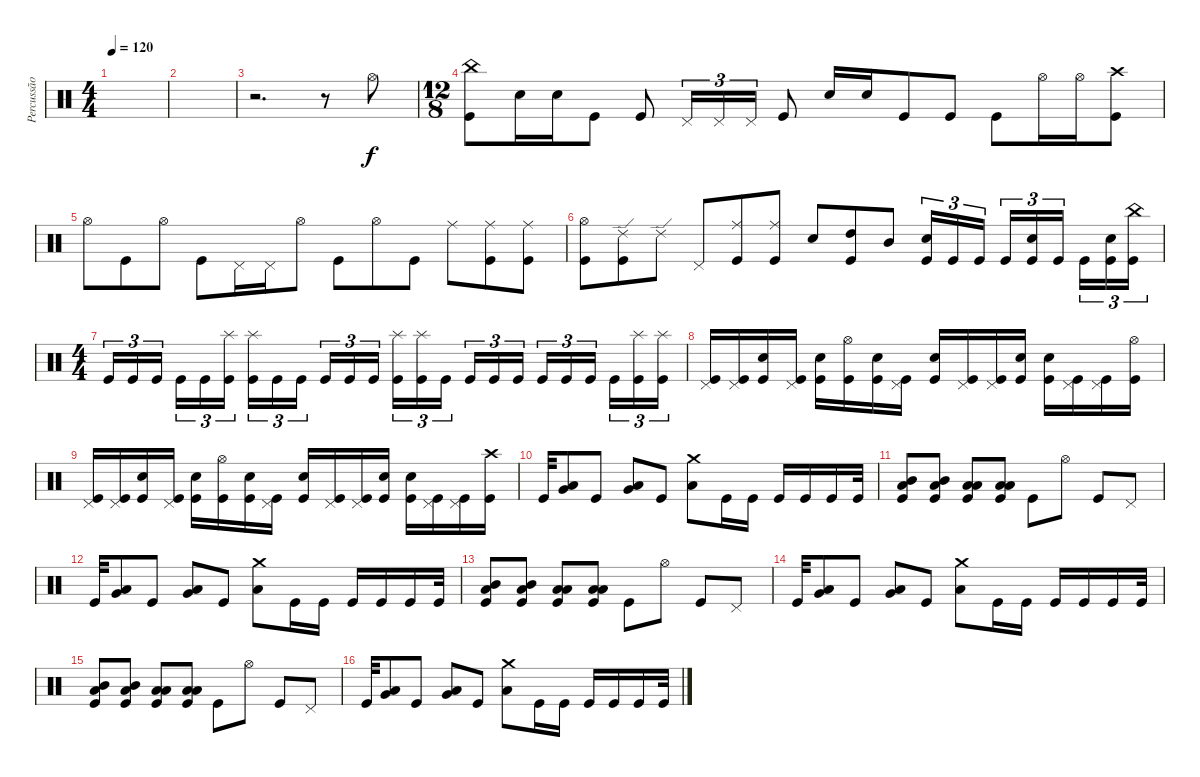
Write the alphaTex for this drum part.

\track ("Percussão" "Percussão") {instrument percussion}
\staff {score}
\articulation defaults
\ts (4 4)
\tempo 120
\clef neutral
\ks c
|
|
r.2{d} r.8 "Hi-Hat (open)".8 |
\ts (12 8)
("Kick (hit)" "China (hit)").8 "Snare (hit) 2".16 "Snare (hit) 2".16 "Kick (hit)".8 "Kick (hit)".8 "Pedal Hi-Hat (hit)".16{tu (3 2)} "Pedal Hi-Hat (hit)".16{tu (3 2)} "Pedal Hi-Hat (hit)".16{tu (3 2)} "Kick (hit)".8 "Snare (hit) 2".16 "Snare (hit) 2".16 "Kick (hit)".8 "Kick (hit)".8 "Kick (hit)".8 "Hi-Hat (open)".16 "Hi-Hat (open)".16 ("Kick (hit)" "Crash high (hit)").8 |
"Hi-Hat (open)".8 "Kick (hit)".8 "Hi-Hat (open)".8 "Kick (hit)".8 "Pedal Hi-Hat (hit)".16 "Pedal Hi-Hat (hit)".16 "Hi-Hat (open)".8 "Kick (hit)".8 "Hi-Hat (open)".8 "Kick (hit)".8 "Ride (middle)".8 ("Kick (hit)" "Ride (middle)").8 ("Kick (hit)" "Ride (middle)").8 |
("Kick (hit)" "Hi-Hat (open)").8 ("Kick (hit)" "Ride (edge) 2").8 "Ride (edge) 2".8 "Pedal Hi-Hat (hit)".8 ("Kick (hit)" "Ride (middle)").8 ("Kick (hit)" "Ride (middle)").8 "Snare (hit) 2".8 ("Kick (hit)" "High Tom (hit)").8 "Mid Tom (hit)".8 ("Kick (hit)" "Snare (hit) 2").16{tu (3 2)} "Kick (hit)".16{tu (3 2)} "Kick (hit)".16{tu (3 2)} "Kick (hit)".16{tu (3 2)} ("Kick (hit)" "Snare (hit) 2").16{tu (3 2)} "Kick (hit)".16{tu (3 2)} "Kick (hit)".16{tu (3 2)} ("Kick (hit)" "Snare (hit) 2").16{tu (3 2)} ("Kick (hit)" "China (hit)").16{tu (3 2)} |
\ts (4 4)
"Kick (hit)".16{tu (3 2)} "Kick (hit)".16{tu (3 2)} "Kick (hit)".16{tu (3 2)} "Kick (hit)".16{tu (3 2)} "Kick (hit)".16{tu (3 2)} ("Kick (hit)" "Splash (hit)").16{tu (3 2)} ("Kick (hit)" "Splash (hit)").16{tu (3 2)} "Kick (hit)".16{tu (3 2)} "Kick (hit)".16{tu (3 2)} "Kick (hit)".16{tu (3 2)} "Kick (hit)".16{tu (3 2)} "Kick (hit)".16{tu (3 2)} ("Kick (hit)" "Splash (hit)").16{tu (3 2)} ("Kick (hit)" "Splash (hit)").16{tu (3 2)} "Kick (hit)".16{tu (3 2)} "Kick (hit)".16{tu (3 2)} "Kick (hit)".16{tu (3 2)} "Kick (hit)".16{tu (3 2)} "Kick (hit)".16{tu (3 2)} "Kick (hit)".16{tu (3 2)} "Kick (hit)".16{tu (3 2)} "Kick (hit)".16{tu (3 2)} ("Kick (hit)" "Splash (hit)").16{tu (3 2)} ("Kick (hit)" "Splash (hit)").16{tu (3 2)} |
("Kick (hit)" "Pedal Hi-Hat (hit)").16 ("Kick (hit)" "Pedal Hi-Hat (hit)").16 ("Kick (hit)" "Snare (hit) 2").16 ("Kick (hit)" "Pedal Hi-Hat (hit)").16 ("Kick (hit)" "Snare (hit) 2").16 ("Kick (hit)" "Hi-Hat (open)").16 ("Kick (hit)" "Snare (hit) 2").16 ("Kick (hit)" "Pedal Hi-Hat (hit)").16 ("Kick (hit)" "Snare (hit) 2").16 ("Kick (hit)" "Pedal Hi-Hat (hit)").16 ("Kick (hit)" "Pedal Hi-Hat (hit)").16 ("Kick (hit)" "Snare (hit) 2").16 ("Kick (hit)" "Snare (hit) 2").16 ("Kick (hit)" "Pedal Hi-Hat (hit)").16 ("Kick (hit)" "Pedal Hi-Hat (hit)").16 ("Kick (hit)" "Hi-Hat (open)").16 |
("Kick (hit)" "Pedal Hi-Hat (hit)").16 ("Kick (hit)" "Pedal Hi-Hat (hit)").16 ("Kick (hit)" "Snare (hit) 2").16 ("Kick (hit)" "Pedal Hi-Hat (hit)").16 ("Kick (hit)" "Snare (hit) 2").16 ("Kick (hit)" "Hi-Hat (open)").16 ("Kick (hit)" "Snare (hit) 2").16 ("Kick (hit)" "Pedal Hi-Hat (hit)").16 ("Kick (hit)" "Snare (hit) 2").16 ("Kick (hit)" "Pedal Hi-Hat (hit)").16 ("Kick (hit)" "Pedal Hi-Hat (hit)").16 ("Kick (hit)" "Snare (hit) 2").16 ("Kick (hit)" "Snare (hit) 2").16 ("Kick (hit)" "Pedal Hi-Hat (hit)").16 ("Kick (hit)" "Pedal Hi-Hat (hit)").16 ("Kick (hit)" "Crash high (hit)").16 |
"Kick (hit)".32 ("Very Low Tom (hit)" "Low Floor Tom (hit)").8 "Kick (hit)".8 ("Very Low Tom (hit)" "Low Floor Tom (hit)").8 "Kick (hit)".8 ("Low Floor Tom (hit)" "Crash medium (hit)").8 "Kick (hit)".16 "Kick (hit)".16 "Kick (hit)".16 "Kick (hit)".16 "Kick (hit)".16 "Kick (hit)".32 |
("Low Floor Tom (hit)" "Mid Tom (hit)" "Kick (hit)").8 ("Low Floor Tom (hit)" "Mid Tom (hit)" "Kick (hit)").8 ("Low Floor Tom (hit)" "Low Tom (hit)" "Kick (hit)").8 ("Low Floor Tom (hit)" "Low Tom (hit)" "Kick (hit)").8 "Kick (hit)".8 "Hi-Hat (open)".8 "Kick (hit)".8 "Pedal Hi-Hat (hit)".8 |
"Kick (hit)".32 ("Very Low Tom (hit)" "Low Floor Tom (hit)").8 "Kick (hit)".8 ("Very Low Tom (hit)" "Low Floor Tom (hit)").8 "Kick (hit)".8 ("Low Floor Tom (hit)" "Crash medium (hit)").8 "Kick (hit)".16 "Kick (hit)".16 "Kick (hit)".16 "Kick (hit)".16 "Kick (hit)".16 "Kick (hit)".32 |
("Low Floor Tom (hit)" "Mid Tom (hit)" "Kick (hit)").8 ("Low Floor Tom (hit)" "Mid Tom (hit)" "Kick (hit)").8 ("Low Floor Tom (hit)" "Low Tom (hit)" "Kick (hit)").8 ("Low Floor Tom (hit)" "Low Tom (hit)" "Kick (hit)").8 "Kick (hit)".8 "Hi-Hat (open)".8 "Kick (hit)".8 "Pedal Hi-Hat (hit)".8 |
"Kick (hit)".32 ("Very Low Tom (hit)" "Low Floor Tom (hit)").8 "Kick (hit)".8 ("Very Low Tom (hit)" "Low Floor Tom (hit)").8 "Kick (hit)".8 ("Low Floor Tom (hit)" "Crash medium (hit)").8 "Kick (hit)".16 "Kick (hit)".16 "Kick (hit)".16 "Kick (hit)".16 "Kick (hit)".16 "Kick (hit)".32 |
("Low Floor Tom (hit)" "Mid Tom (hit)" "Kick (hit)").8 ("Low Floor Tom (hit)" "Mid Tom (hit)" "Kick (hit)").8 ("Low Floor Tom (hit)" "Low Tom (hit)" "Kick (hit)").8 ("Low Floor Tom (hit)" "Low Tom (hit)" "Kick (hit)").8 "Kick (hit)".8 "Hi-Hat (open)".8 "Kick (hit)".8 "Pedal Hi-Hat (hit)".8 |
"Kick (hit)".32 ("Very Low Tom (hit)" "Low Floor Tom (hit)").8 "Kick (hit)".8 ("Very Low Tom (hit)" "Low Floor Tom (hit)").8 "Kick (hit)".8 ("Low Floor Tom (hit)" "Crash medium (hit)").8 "Kick (hit)".16 "Kick (hit)".16 "Kick (hit)".16 "Kick (hit)".16 "Kick (hit)".16 "Kick (hit)".32
